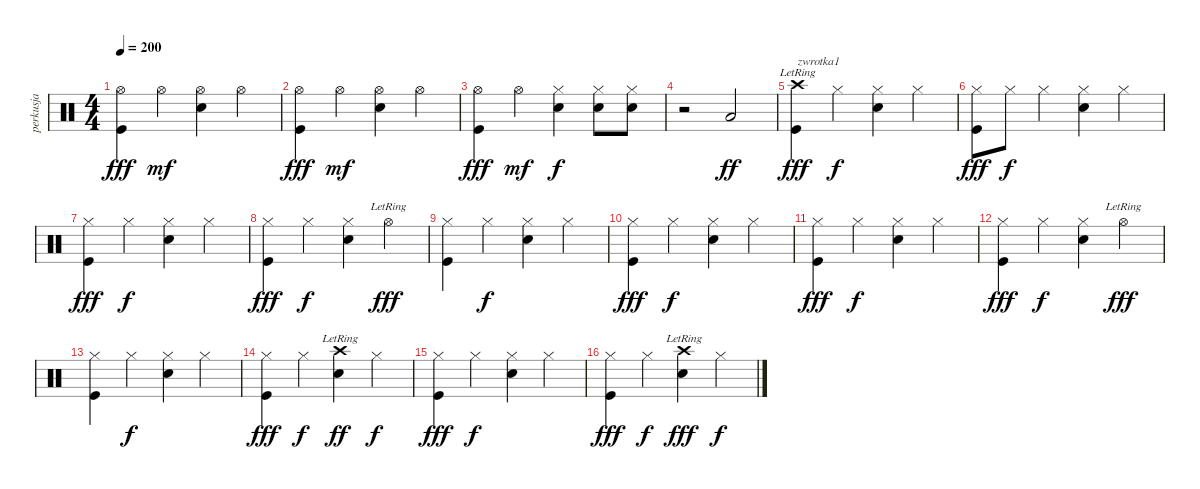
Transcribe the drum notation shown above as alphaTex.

\track ("perkusja" "perkusja") {instrument percussion}
\staff {score}
\articulation defaults
\ts (4 4)
\tempo 200
\clef neutral
\ks c
("Hi-Hat (open)" "Kick (hit)").4{dy fff} "Hi-Hat (open)".4{dy mf} ("Hi-Hat (open)" "Electric Snare (hit)").4 "Hi-Hat (open)".4 |
("Hi-Hat (open)" "Kick (hit)").4{dy fff} "Hi-Hat (open)".4{dy mf} ("Hi-Hat (open)" "Electric Snare (hit)").4 "Hi-Hat (open)".4 |
("Hi-Hat (open)" "Kick (hit)").4{dy fff} "Hi-Hat (open)".4{dy mf} ("Hi-Hat (closed)" "Electric Snare (hit)").4{dy f} ("Hi-Hat (closed)" "Electric Snare (hit)").8 ("Hi-Hat (closed)" "Electric Snare (hit)").8 |
r.2 "Low Floor Tom (hit)".2{dy ff} |
("Crash high (hit)"{lr} "Kick (hit)").4{txt "zwrotka1" dy fff} "Hi-Hat (closed)".4{dy f} ("Hi-Hat (closed)" "Electric Snare (hit)").4 "Hi-Hat (closed)".4 |
("Hi-Hat (closed)" "Kick (hit)").8{dy fff} "Hi-Hat (closed)".8{dy f} "Hi-Hat (closed)".4 ("Hi-Hat (closed)" "Electric Snare (hit)").4 "Hi-Hat (closed)".4 |
("Hi-Hat (closed)" "Kick (hit)").4{dy fff} "Hi-Hat (closed)".4{dy f} ("Hi-Hat (closed)" "Electric Snare (hit)").4 "Hi-Hat (closed)".4 |
("Hi-Hat (closed)" "Kick (hit)").4{dy fff} "Hi-Hat (closed)".4{dy f} ("Hi-Hat (closed)" "Electric Snare (hit)").4 "Hi-Hat (open)"{lr}.4{dy fff} |
("Hi-Hat (closed)" "Kick (hit)").4 "Hi-Hat (closed)".4{dy f} ("Hi-Hat (closed)" "Electric Snare (hit)").4 "Hi-Hat (closed)".4 |
("Hi-Hat (closed)" "Kick (hit)").4{dy fff} "Hi-Hat (closed)".4{dy f} ("Hi-Hat (closed)" "Electric Snare (hit)").4 "Hi-Hat (closed)".4 |
("Hi-Hat (closed)" "Kick (hit)").4{dy fff} "Hi-Hat (closed)".4{dy f} ("Hi-Hat (closed)" "Electric Snare (hit)").4 "Hi-Hat (closed)".4 |
("Hi-Hat (closed)" "Kick (hit)").4{dy fff} "Hi-Hat (closed)".4{dy f} ("Hi-Hat (closed)" "Electric Snare (hit)").4 "Hi-Hat (open)"{lr}.4{dy fff} |
("Hi-Hat (closed)" "Kick (hit)").4 "Hi-Hat (closed)".4{dy f} ("Hi-Hat (closed)" "Electric Snare (hit)").4 "Hi-Hat (closed)".4 |
("Hi-Hat (closed)" "Kick (hit)").4{dy fff} "Hi-Hat (closed)".4{dy f} ("Crash high (hit)"{lr} "Electric Snare (hit)").4{dy ff} "Hi-Hat (closed)".4{dy f} |
("Hi-Hat (closed)" "Kick (hit)").4{dy fff} "Hi-Hat (closed)".4{dy f} ("Hi-Hat (closed)" "Electric Snare (hit)").4 "Hi-Hat (closed)".4 |
("Hi-Hat (closed)" "Kick (hit)").4{dy fff} "Hi-Hat (closed)".4{dy f} ("Crash high (hit)"{lr} "Electric Snare (hit)").4{dy fff} "Hi-Hat (closed)".4{dy f}
